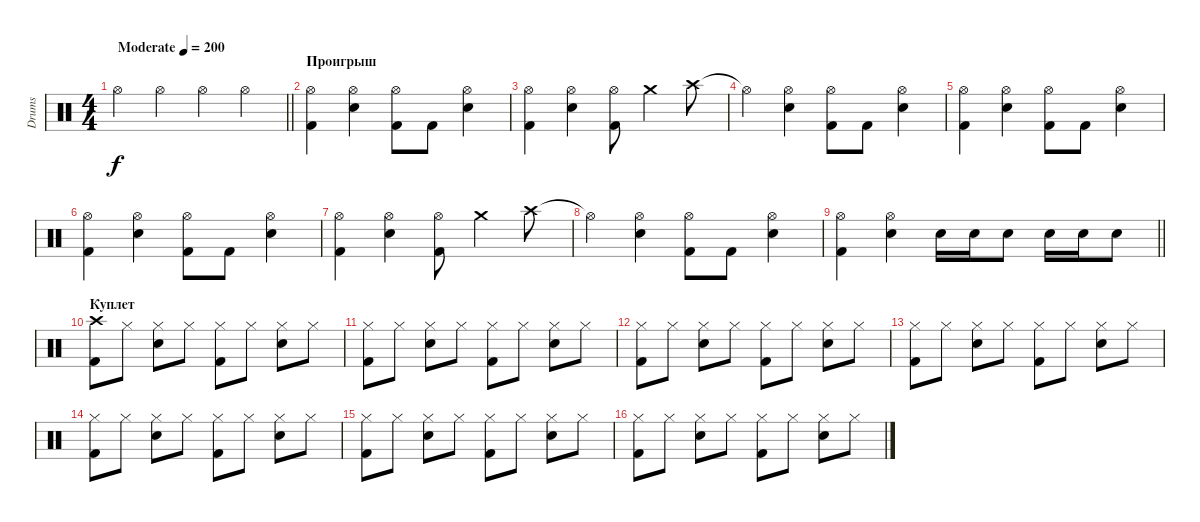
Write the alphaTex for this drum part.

\track ("Drums" "Drums") {instrument percussion}
\staff {score}
\articulation defaults
\ts (4 4)
\tempo (200 "Moderate")
\clef neutral
\barLineRight lightlight
\ks c "Hi-Hat (open)".4{dy f} "Hi-Hat (open)".4 "Hi-Hat (open)".4 "Hi-Hat (open)".4
|
\section ("" "Проигрыш")
("Hi-Hat (open)" "Kick (hit) 2").4 ("Hi-Hat (open)" "Snare (hit) 2").4 ("Hi-Hat (open)" "Kick (hit) 2").8 "Kick (hit) 2".8 ("Hi-Hat (open)" "Snare (hit) 2").4 |
("Hi-Hat (open)" "Kick (hit) 2").4 ("Hi-Hat (open)" "Snare (hit) 2").4 ("Hi-Hat (open)" "Kick (hit) 2").8 "Crash medium (hit)".4 "Crash high (hit)".8 |
"Hi-Hat (open)"{t}.4 ("Hi-Hat (open)" "Snare (hit) 2").4 ("Hi-Hat (open)" "Kick (hit) 2").8 "Kick (hit) 2".8 ("Hi-Hat (open)" "Snare (hit) 2").4 |
("Hi-Hat (open)" "Kick (hit) 2").4 ("Hi-Hat (open)" "Snare (hit) 2").4 ("Hi-Hat (open)" "Kick (hit) 2").8 "Kick (hit) 2".8 ("Hi-Hat (open)" "Snare (hit) 2").4 |
("Hi-Hat (open)" "Kick (hit) 2").4 ("Hi-Hat (open)" "Snare (hit) 2").4 ("Hi-Hat (open)" "Kick (hit) 2").8 "Kick (hit) 2".8 ("Hi-Hat (open)" "Snare (hit) 2").4 |
("Hi-Hat (open)" "Kick (hit) 2").4 ("Hi-Hat (open)" "Snare (hit) 2").4 ("Hi-Hat (open)" "Kick (hit) 2").8 "Crash medium (hit)".4 "Crash high (hit)".8 |
"Hi-Hat (open)"{t}.4 ("Hi-Hat (open)" "Snare (hit) 2").4 ("Hi-Hat (open)" "Kick (hit) 2").8 "Kick (hit) 2".8 ("Hi-Hat (open)" "Snare (hit) 2").4 |
\barLineRight lightlight
("Hi-Hat (open)" "Kick (hit) 2").4 ("Hi-Hat (open)" "Snare (hit) 2").4 "Snare (hit) 2".16 "Snare (hit) 2".16 "Snare (hit) 2".8 "Snare (hit) 2".16 "Snare (hit) 2".16 "Snare (hit) 2".8 |
\section ("" "Куплет")
("Crash high (hit)" "Kick (hit) 2").8 "Hi-Hat (closed)".8 ("Hi-Hat (closed)" "Snare (hit) 2").8 "Hi-Hat (closed)".8 ("Hi-Hat (closed)" "Kick (hit) 2").8 "Hi-Hat (closed)".8 ("Hi-Hat (closed)" "Snare (hit) 2").8 "Hi-Hat (closed)".8 |
("Hi-Hat (closed)" "Kick (hit) 2").8 "Hi-Hat (closed)".8 ("Hi-Hat (closed)" "Snare (hit) 2").8 "Hi-Hat (closed)".8 ("Hi-Hat (closed)" "Kick (hit) 2").8 "Hi-Hat (closed)".8 ("Hi-Hat (closed)" "Snare (hit) 2").8 "Hi-Hat (closed)".8 |
("Hi-Hat (closed)" "Kick (hit) 2").8 "Hi-Hat (closed)".8 ("Hi-Hat (closed)" "Snare (hit) 2").8 "Hi-Hat (closed)".8 ("Hi-Hat (closed)" "Kick (hit) 2").8 "Hi-Hat (closed)".8 ("Hi-Hat (closed)" "Snare (hit) 2").8 "Hi-Hat (closed)".8 |
("Hi-Hat (closed)" "Kick (hit) 2").8 "Hi-Hat (closed)".8 ("Hi-Hat (closed)" "Snare (hit) 2").8 "Hi-Hat (closed)".8 ("Hi-Hat (closed)" "Kick (hit) 2").8 "Hi-Hat (closed)".8 ("Hi-Hat (closed)" "Snare (hit) 2").8 "Hi-Hat (closed)".8 |
("Hi-Hat (closed)" "Kick (hit) 2").8 "Hi-Hat (closed)".8 ("Hi-Hat (closed)" "Snare (hit) 2").8 "Hi-Hat (closed)".8 ("Hi-Hat (closed)" "Kick (hit) 2").8 "Hi-Hat (closed)".8 ("Hi-Hat (closed)" "Snare (hit) 2").8 "Hi-Hat (closed)".8 |
("Hi-Hat (closed)" "Kick (hit) 2").8 "Hi-Hat (closed)".8 ("Hi-Hat (closed)" "Snare (hit) 2").8 "Hi-Hat (closed)".8 ("Hi-Hat (closed)" "Kick (hit) 2").8 "Hi-Hat (closed)".8 ("Hi-Hat (closed)" "Snare (hit) 2").8 "Hi-Hat (closed)".8 |
("Hi-Hat (closed)" "Kick (hit) 2").8 "Hi-Hat (closed)".8 ("Hi-Hat (closed)" "Snare (hit) 2").8 "Hi-Hat (closed)".8 ("Hi-Hat (closed)" "Kick (hit) 2").8 "Hi-Hat (closed)".8 ("Hi-Hat (closed)" "Snare (hit) 2").8 "Hi-Hat (closed)".8
